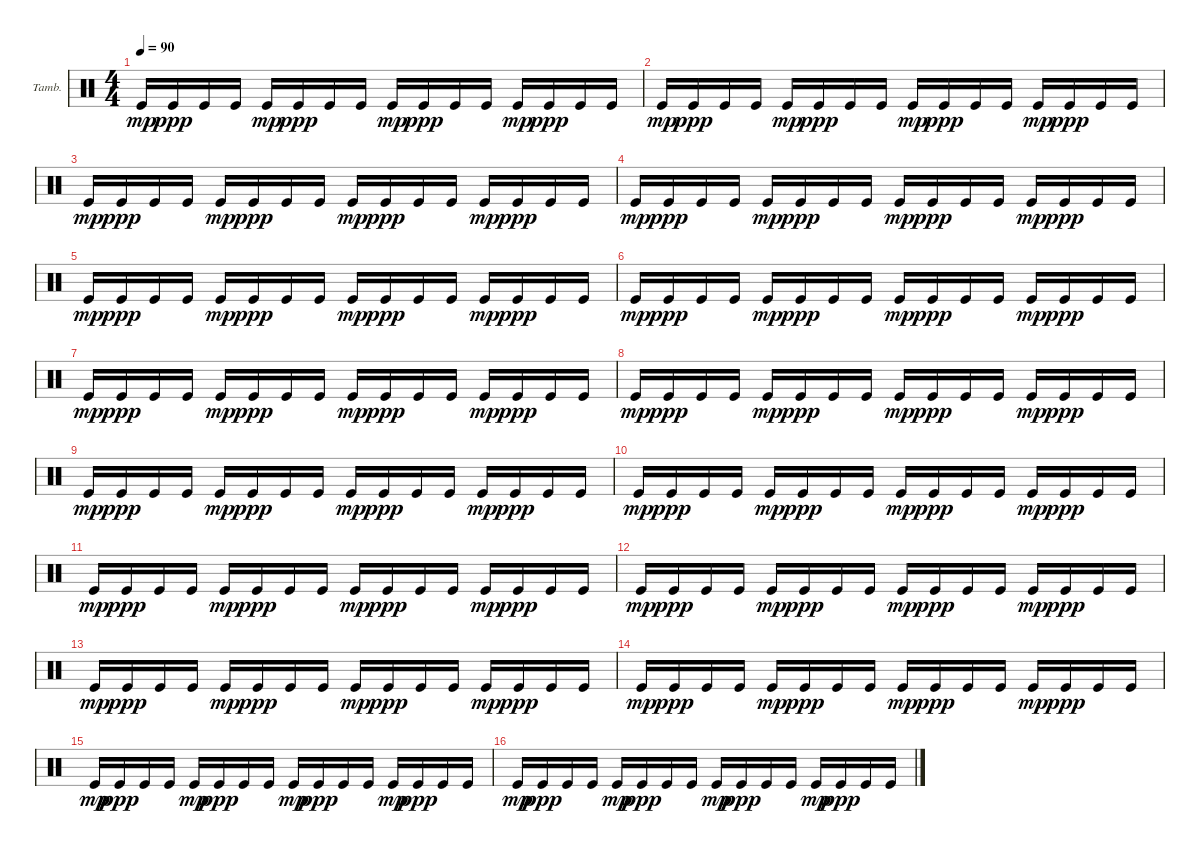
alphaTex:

\defaultSystemsLayout 4
\bracketExtendMode groupsimilarinstruments
\firstSystemTrackNameOrientation horizontal
\otherSystemsTrackNameOrientation horizontal
\track ("Tambourine" "Tamb.") {instrument percussion}
\staff {score}
\articulation defaults
\ts (4 4)
\tempo 90
\clef neutral
\ks c "Kick (hit)".16{dy mp} "Kick (hit)".16{dy ppp} "Kick (hit)".16 "Kick (hit)".16 "Kick (hit)".16{dy mp} "Kick (hit)".16{dy ppp} "Kick (hit)".16 "Kick (hit)".16 "Kick (hit)".16{dy mp} "Kick (hit)".16{dy ppp} "Kick (hit)".16 "Kick (hit)".16 "Kick (hit)".16{dy mp} "Kick (hit)".16{dy ppp} "Kick (hit)".16 "Kick (hit)".16
|
"Kick (hit)".16{dy mp} "Kick (hit)".16{dy ppp} "Kick (hit)".16 "Kick (hit)".16 "Kick (hit)".16{dy mp} "Kick (hit)".16{dy ppp} "Kick (hit)".16 "Kick (hit)".16 "Kick (hit)".16{dy mp} "Kick (hit)".16{dy ppp} "Kick (hit)".16 "Kick (hit)".16 "Kick (hit)".16{dy mp} "Kick (hit)".16{dy ppp} "Kick (hit)".16 "Kick (hit)".16 |
"Kick (hit)".16{dy mp} "Kick (hit)".16{dy ppp} "Kick (hit)".16 "Kick (hit)".16 "Kick (hit)".16{dy mp} "Kick (hit)".16{dy ppp} "Kick (hit)".16 "Kick (hit)".16 "Kick (hit)".16{dy mp} "Kick (hit)".16{dy ppp} "Kick (hit)".16 "Kick (hit)".16 "Kick (hit)".16{dy mp} "Kick (hit)".16{dy ppp} "Kick (hit)".16 "Kick (hit)".16 |
"Kick (hit)".16{dy mp} "Kick (hit)".16{dy ppp} "Kick (hit)".16 "Kick (hit)".16 "Kick (hit)".16{dy mp} "Kick (hit)".16{dy ppp} "Kick (hit)".16 "Kick (hit)".16 "Kick (hit)".16{dy mp} "Kick (hit)".16{dy ppp} "Kick (hit)".16 "Kick (hit)".16 "Kick (hit)".16{dy mp} "Kick (hit)".16{dy ppp} "Kick (hit)".16 "Kick (hit)".16 |
"Kick (hit)".16{dy mp} "Kick (hit)".16{dy ppp} "Kick (hit)".16 "Kick (hit)".16 "Kick (hit)".16{dy mp} "Kick (hit)".16{dy ppp} "Kick (hit)".16 "Kick (hit)".16 "Kick (hit)".16{dy mp} "Kick (hit)".16{dy ppp} "Kick (hit)".16 "Kick (hit)".16 "Kick (hit)".16{dy mp} "Kick (hit)".16{dy ppp} "Kick (hit)".16 "Kick (hit)".16 |
"Kick (hit)".16{dy mp} "Kick (hit)".16{dy ppp} "Kick (hit)".16 "Kick (hit)".16 "Kick (hit)".16{dy mp} "Kick (hit)".16{dy ppp} "Kick (hit)".16 "Kick (hit)".16 "Kick (hit)".16{dy mp} "Kick (hit)".16{dy ppp} "Kick (hit)".16 "Kick (hit)".16 "Kick (hit)".16{dy mp} "Kick (hit)".16{dy ppp} "Kick (hit)".16 "Kick (hit)".16 |
"Kick (hit)".16{dy mp} "Kick (hit)".16{dy ppp} "Kick (hit)".16 "Kick (hit)".16 "Kick (hit)".16{dy mp} "Kick (hit)".16{dy ppp} "Kick (hit)".16 "Kick (hit)".16 "Kick (hit)".16{dy mp} "Kick (hit)".16{dy ppp} "Kick (hit)".16 "Kick (hit)".16 "Kick (hit)".16{dy mp} "Kick (hit)".16{dy ppp} "Kick (hit)".16 "Kick (hit)".16 |
"Kick (hit)".16{dy mp} "Kick (hit)".16{dy ppp} "Kick (hit)".16 "Kick (hit)".16 "Kick (hit)".16{dy mp} "Kick (hit)".16{dy ppp} "Kick (hit)".16 "Kick (hit)".16 "Kick (hit)".16{dy mp} "Kick (hit)".16{dy ppp} "Kick (hit)".16 "Kick (hit)".16 "Kick (hit)".16{dy mp} "Kick (hit)".16{dy ppp} "Kick (hit)".16 "Kick (hit)".16 |
"Kick (hit)".16{dy mp} "Kick (hit)".16{dy ppp} "Kick (hit)".16 "Kick (hit)".16 "Kick (hit)".16{dy mp} "Kick (hit)".16{dy ppp} "Kick (hit)".16 "Kick (hit)".16 "Kick (hit)".16{dy mp} "Kick (hit)".16{dy ppp} "Kick (hit)".16 "Kick (hit)".16 "Kick (hit)".16{dy mp} "Kick (hit)".16{dy ppp} "Kick (hit)".16 "Kick (hit)".16 |
"Kick (hit)".16{dy mp} "Kick (hit)".16{dy ppp} "Kick (hit)".16 "Kick (hit)".16 "Kick (hit)".16{dy mp} "Kick (hit)".16{dy ppp} "Kick (hit)".16 "Kick (hit)".16 "Kick (hit)".16{dy mp} "Kick (hit)".16{dy ppp} "Kick (hit)".16 "Kick (hit)".16 "Kick (hit)".16{dy mp} "Kick (hit)".16{dy ppp} "Kick (hit)".16 "Kick (hit)".16 |
"Kick (hit)".16{dy mp} "Kick (hit)".16{dy ppp} "Kick (hit)".16 "Kick (hit)".16 "Kick (hit)".16{dy mp} "Kick (hit)".16{dy ppp} "Kick (hit)".16 "Kick (hit)".16 "Kick (hit)".16{dy mp} "Kick (hit)".16{dy ppp} "Kick (hit)".16 "Kick (hit)".16 "Kick (hit)".16{dy mp} "Kick (hit)".16{dy ppp} "Kick (hit)".16 "Kick (hit)".16 |
"Kick (hit)".16{dy mp} "Kick (hit)".16{dy ppp} "Kick (hit)".16 "Kick (hit)".16 "Kick (hit)".16{dy mp} "Kick (hit)".16{dy ppp} "Kick (hit)".16 "Kick (hit)".16 "Kick (hit)".16{dy mp} "Kick (hit)".16{dy ppp} "Kick (hit)".16 "Kick (hit)".16 "Kick (hit)".16{dy mp} "Kick (hit)".16{dy ppp} "Kick (hit)".16 "Kick (hit)".16 |
"Kick (hit)".16{dy mp} "Kick (hit)".16{dy ppp} "Kick (hit)".16 "Kick (hit)".16 "Kick (hit)".16{dy mp} "Kick (hit)".16{dy ppp} "Kick (hit)".16 "Kick (hit)".16 "Kick (hit)".16{dy mp} "Kick (hit)".16{dy ppp} "Kick (hit)".16 "Kick (hit)".16 "Kick (hit)".16{dy mp} "Kick (hit)".16{dy ppp} "Kick (hit)".16 "Kick (hit)".16 |
"Kick (hit)".16{dy mp} "Kick (hit)".16{dy ppp} "Kick (hit)".16 "Kick (hit)".16 "Kick (hit)".16{dy mp} "Kick (hit)".16{dy ppp} "Kick (hit)".16 "Kick (hit)".16 "Kick (hit)".16{dy mp} "Kick (hit)".16{dy ppp} "Kick (hit)".16 "Kick (hit)".16 "Kick (hit)".16{dy mp} "Kick (hit)".16{dy ppp} "Kick (hit)".16 "Kick (hit)".16 |
"Kick (hit)".16{dy mp} "Kick (hit)".16{dy ppp} "Kick (hit)".16 "Kick (hit)".16 "Kick (hit)".16{dy mp} "Kick (hit)".16{dy ppp} "Kick (hit)".16 "Kick (hit)".16 "Kick (hit)".16{dy mp} "Kick (hit)".16{dy ppp} "Kick (hit)".16 "Kick (hit)".16 "Kick (hit)".16{dy mp} "Kick (hit)".16{dy ppp} "Kick (hit)".16 "Kick (hit)".16 |
"Kick (hit)".16{dy mp} "Kick (hit)".16{dy ppp} "Kick (hit)".16 "Kick (hit)".16 "Kick (hit)".16{dy mp} "Kick (hit)".16{dy ppp} "Kick (hit)".16 "Kick (hit)".16 "Kick (hit)".16{dy mp} "Kick (hit)".16{dy ppp} "Kick (hit)".16 "Kick (hit)".16 "Kick (hit)".16{dy mp} "Kick (hit)".16{dy ppp} "Kick (hit)".16 "Kick (hit)".16
